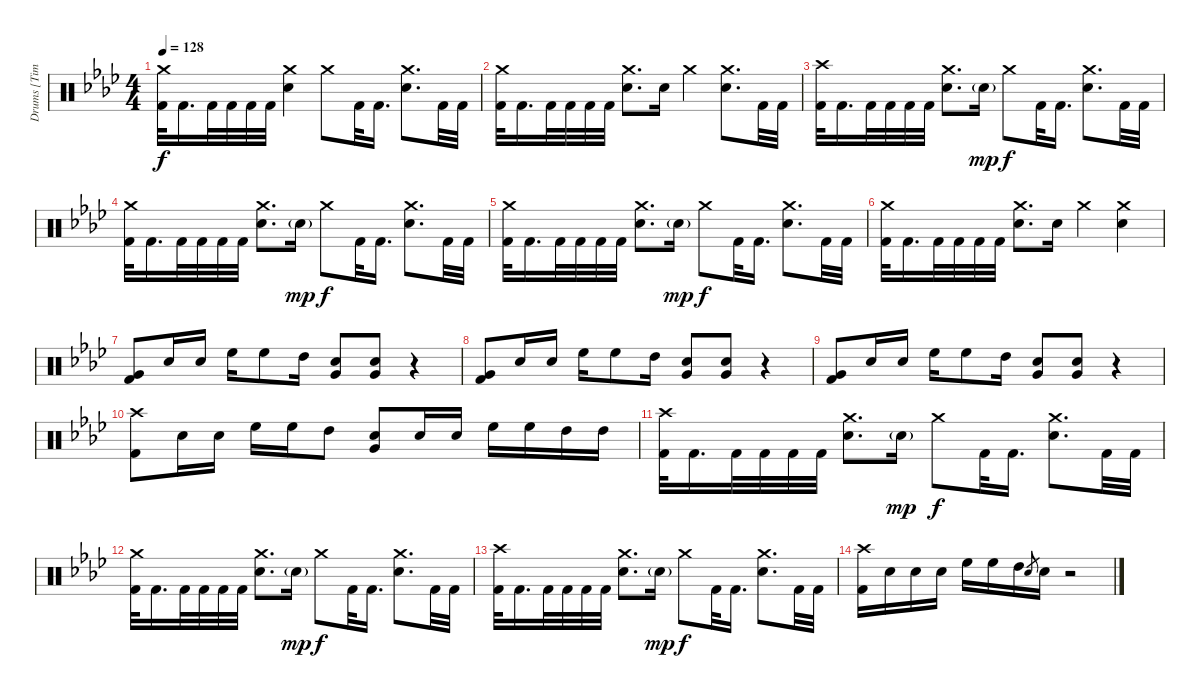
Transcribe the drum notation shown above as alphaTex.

\track ("Drums [Tim Alexander]" "Drums [Tim") {instrument percussion}
\staff {score}
\articulation defaults
\ts (4 4)
\tempo 128
\clef neutral
\ks ab
("Crash medium (hit)" "Kick (hit) 2").32{dy f} "Kick (hit) 2".16{d} "Kick (hit) 2".32 "Kick (hit) 2".32 "Kick (hit) 2".32 "Kick (hit) 2".32 ("Crash medium (hit)" "Electric Snare (hit)").4 "Crash medium (hit)".8 "Kick (hit) 2".32 "Kick (hit) 2".16{d} ("Crash medium (hit)" "Electric Snare (hit)").8{d} "Kick (hit) 2".32 "Kick (hit) 2".32 |
("Crash medium (hit)" "Kick (hit) 2").32 "Kick (hit) 2".16{d} "Kick (hit) 2".32 "Kick (hit) 2".32 "Kick (hit) 2".32 "Kick (hit) 2".32 ("Crash medium (hit)" "Electric Snare (hit)").8{d} "Electric Snare (hit)".16 "Crash medium (hit)".4 ("Crash medium (hit)" "Electric Snare (hit)").8{d} "Kick (hit) 2".32 "Kick (hit) 2".32 |
("Crash high (hit)" "Kick (hit) 2").32 "Kick (hit) 2".16{d} "Kick (hit) 2".32 "Kick (hit) 2".32 "Kick (hit) 2".32 "Kick (hit) 2".32 ("Crash medium (hit)" "Electric Snare (hit)").8{d} "Electric Snare (hit)"{g}.16{dy mp} "Crash medium (hit)".8{dy f} "Kick (hit) 2".32 "Kick (hit) 2".16{d} ("Crash medium (hit)" "Electric Snare (hit)").8{d} "Kick (hit) 2".32 "Kick (hit) 2".32 |
("Crash medium (hit)" "Kick (hit) 2").32 "Kick (hit) 2".16{d} "Kick (hit) 2".32 "Kick (hit) 2".32 "Kick (hit) 2".32 "Kick (hit) 2".32 ("Crash medium (hit)" "Electric Snare (hit)").8{d} "Electric Snare (hit)"{g}.16{dy mp} "Crash medium (hit)".8{dy f} "Kick (hit) 2".32 "Kick (hit) 2".16{d} ("Crash medium (hit)" "Electric Snare (hit)").8{d} "Kick (hit) 2".32 "Kick (hit) 2".32 |
("Crash medium (hit)" "Kick (hit) 2").32 "Kick (hit) 2".16{d} "Kick (hit) 2".32 "Kick (hit) 2".32 "Kick (hit) 2".32 "Kick (hit) 2".32 ("Crash medium (hit)" "Electric Snare (hit)").8{d} "Electric Snare (hit)"{g}.16{dy mp} "Crash medium (hit)".8{dy f} "Kick (hit) 2".32 "Kick (hit) 2".16{d} ("Crash medium (hit)" "Electric Snare (hit)").8{d} "Kick (hit) 2".32 "Kick (hit) 2".32 |
("Crash medium (hit)" "Kick (hit) 2").32 "Kick (hit) 2".16{d} "Kick (hit) 2".32 "Kick (hit) 2".32 "Kick (hit) 2".32 "Kick (hit) 2".32 ("Crash medium (hit)" "Electric Snare (hit)").8{d} "Electric Snare (hit)".16 "Crash medium (hit)".4 ("Crash medium (hit)" "Electric Snare (hit)").4 |
("Very Low Tom (hit)" "Kick (hit) 2").8 "Electric Snare (hit)".16 "Electric Snare (hit)".16 "High Floor Tom (hit)".16 "High Floor Tom (hit)".8 "High Tom (hit)".16 ("Very Low Tom (hit)" "Electric Snare (hit)").8 ("Very Low Tom (hit)" "Electric Snare (hit)").8 r.4 |
("Very Low Tom (hit)" "Kick (hit) 2").8 "Electric Snare (hit)".16 "Electric Snare (hit)".16 "High Floor Tom (hit)".16 "High Floor Tom (hit)".8 "High Tom (hit)".16 ("Very Low Tom (hit)" "Electric Snare (hit)").8 ("Very Low Tom (hit)" "Electric Snare (hit)").8 r.4 |
("Very Low Tom (hit)" "Kick (hit) 2").8 "Electric Snare (hit)".16 "Electric Snare (hit)".16 "High Floor Tom (hit)".16 "High Floor Tom (hit)".8 "High Tom (hit)".16 ("Very Low Tom (hit)" "Electric Snare (hit)").8 ("Very Low Tom (hit)" "Electric Snare (hit)").8 r.4 |
("Crash high (hit)" "Kick (hit) 2").8 "Electric Snare (hit)".16 "Electric Snare (hit)".16 "High Floor Tom (hit)".16 "High Floor Tom (hit)".16 "High Tom (hit)".8 ("Very Low Tom (hit)" "Electric Snare (hit)").8 "Electric Snare (hit)".16 "Electric Snare (hit)".16 "High Floor Tom (hit)".16 "High Floor Tom (hit)".16 "High Tom (hit)".16 "High Tom (hit)".16 |
("Crash high (hit)" "Kick (hit) 2").32 "Kick (hit) 2".16{d} "Kick (hit) 2".32 "Kick (hit) 2".32 "Kick (hit) 2".32 "Kick (hit) 2".32 ("Crash medium (hit)" "Electric Snare (hit)").8{d} "Electric Snare (hit)"{g}.16{dy mp} "Crash medium (hit)".8{dy f} "Kick (hit) 2".32 "Kick (hit) 2".16{d} ("Crash medium (hit)" "Electric Snare (hit)").8{d} "Kick (hit) 2".32 "Kick (hit) 2".32 |
("Crash medium (hit)" "Kick (hit) 2").32 "Kick (hit) 2".16{d} "Kick (hit) 2".32 "Kick (hit) 2".32 "Kick (hit) 2".32 "Kick (hit) 2".32 ("Crash medium (hit)" "Electric Snare (hit)").8{d} "Electric Snare (hit)"{g}.16{dy mp} "Crash medium (hit)".8{dy f} "Kick (hit) 2".32 "Kick (hit) 2".16{d} ("Crash medium (hit)" "Electric Snare (hit)").8{d} "Kick (hit) 2".32 "Kick (hit) 2".32 |
("Crash high (hit)" "Kick (hit) 2").32 "Kick (hit) 2".16{d} "Kick (hit) 2".32 "Kick (hit) 2".32 "Kick (hit) 2".32 "Kick (hit) 2".32 ("Crash medium (hit)" "Electric Snare (hit)").8{d} "Electric Snare (hit)"{g}.16{dy mp} "Crash medium (hit)".8{dy f} "Kick (hit) 2".32 "Kick (hit) 2".16{d} ("Crash medium (hit)" "Electric Snare (hit)").8{d} "Kick (hit) 2".32 "Kick (hit) 2".32 |
("Crash high (hit)" "Kick (hit) 2").16 "Electric Snare (hit)".16 "Electric Snare (hit)".16 "Electric Snare (hit)".16 "High Floor Tom (hit)".16 "High Floor Tom (hit)".16 "High Tom (hit)".16 "Electric Snare (hit)".8{gr} "Electric Snare (hit)".16 r.2
